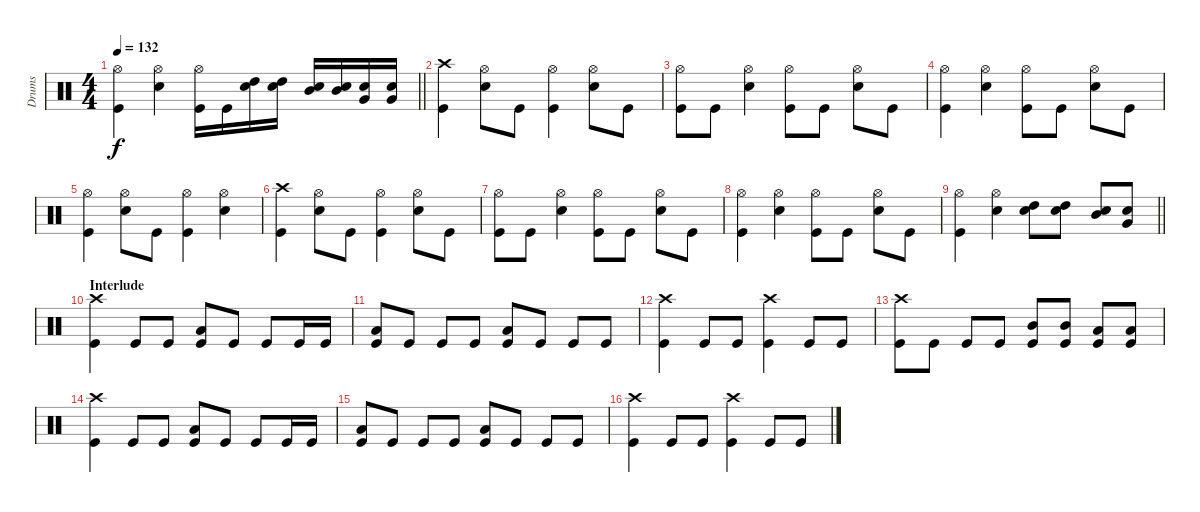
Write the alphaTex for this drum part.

\track ("Drums" "Drums") {instrument percussion}
\staff {score}
\articulation defaults
\ts (4 4)
\tempo 132
\clef neutral
\barLineRight lightlight
\ks c
("Hi-Hat (open)" "Kick (hit)").4{dy f} ("Hi-Hat (open)" "Electric Snare (hit)").4 ("Hi-Hat (open)" "Kick (hit)").16 "Kick (hit)".16 ("High Tom (hit)" "Electric Snare (hit)").16 ("High Tom (hit)" "Electric Snare (hit)").16 ("Mid Tom (hit)" "Electric Snare (hit)").16 ("Mid Tom (hit)" "Electric Snare (hit)").16 ("Very Low Tom (hit)" "Electric Snare (hit)").16 ("Very Low Tom (hit)" "Electric Snare (hit)").16 |
("Crash high (hit)" "Kick (hit)").4 ("Hi-Hat (open)" "Electric Snare (hit)").8 "Kick (hit)".8 ("Hi-Hat (open)" "Kick (hit)").4 ("Hi-Hat (open)" "Electric Snare (hit)").8 "Kick (hit)".8 |
("Hi-Hat (open)" "Kick (hit)").8 "Kick (hit)".8 ("Hi-Hat (open)" "Electric Snare (hit)").4 ("Hi-Hat (open)" "Kick (hit)").8 "Kick (hit)".8 ("Hi-Hat (open)" "Electric Snare (hit)").8 "Kick (hit)".8 |
("Hi-Hat (open)" "Kick (hit)").4 ("Hi-Hat (open)" "Electric Snare (hit)").4 ("Hi-Hat (open)" "Kick (hit)").8 "Kick (hit)".8 ("Hi-Hat (open)" "Electric Snare (hit)").8 "Kick (hit)".8 |
("Hi-Hat (open)" "Kick (hit)").4 ("Hi-Hat (open)" "Electric Snare (hit)").8 "Kick (hit)".8 ("Hi-Hat (open)" "Kick (hit)").4 ("Hi-Hat (open)" "Electric Snare (hit)").4 |
("Crash high (hit)" "Kick (hit)").4 ("Hi-Hat (open)" "Electric Snare (hit)").8 "Kick (hit)".8 ("Hi-Hat (open)" "Kick (hit)").4 ("Hi-Hat (open)" "Electric Snare (hit)").8 "Kick (hit)".8 |
("Hi-Hat (open)" "Kick (hit)").8 "Kick (hit)".8 ("Hi-Hat (open)" "Electric Snare (hit)").4 ("Hi-Hat (open)" "Kick (hit)").8 "Kick (hit)".8 ("Hi-Hat (open)" "Electric Snare (hit)").8 "Kick (hit)".8 |
("Hi-Hat (open)" "Kick (hit)").4 ("Hi-Hat (open)" "Electric Snare (hit)").4 ("Hi-Hat (open)" "Kick (hit)").8 "Kick (hit)".8 ("Hi-Hat (open)" "Electric Snare (hit)").8 "Kick (hit)".8 |
\barLineRight lightlight
("Hi-Hat (open)" "Kick (hit)").4 ("Hi-Hat (open)" "Electric Snare (hit)").4 ("High Tom (hit)" "Electric Snare (hit)").8 ("High Tom (hit)" "Electric Snare (hit)").8 ("Mid Tom (hit)" "Electric Snare (hit)").8 ("Very Low Tom (hit)" "Electric Snare (hit)").8 |
\section ("" "Interlude ")
("Crash high (hit)" "Kick (hit)").4 "Kick (hit)".8 "Kick (hit)".8 ("Low Floor Tom (hit)" "Kick (hit)").8 "Kick (hit)".8 "Kick (hit)".8 "Kick (hit)".16 "Kick (hit)".16 |
("Low Floor Tom (hit)" "Kick (hit)").8 "Kick (hit)".8 "Kick (hit)".8 "Kick (hit)".8 ("Low Floor Tom (hit)" "Kick (hit)").8 "Kick (hit)".8 "Kick (hit)".8 "Kick (hit)".8 |
("Crash high (hit)" "Kick (hit)").4 "Kick (hit)".8 "Kick (hit)".8 ("Crash high (hit)" "Kick (hit)").4 "Kick (hit)".8 "Kick (hit)".8 |
("Crash high (hit)" "Kick (hit)").8 "Kick (hit)".8 "Kick (hit)".8 "Kick (hit)".8 ("Mid Tom (hit)" "Kick (hit)").8 ("Mid Tom (hit)" "Kick (hit)").8 ("Low Tom (hit)" "Kick (hit)").8 ("Low Tom (hit)" "Kick (hit)").8 |
("Crash high (hit)" "Kick (hit)").4 "Kick (hit)".8 "Kick (hit)".8 ("Low Floor Tom (hit)" "Kick (hit)").8 "Kick (hit)".8 "Kick (hit)".8 "Kick (hit)".16 "Kick (hit)".16 |
("Low Floor Tom (hit)" "Kick (hit)").8 "Kick (hit)".8 "Kick (hit)".8 "Kick (hit)".8 ("Low Floor Tom (hit)" "Kick (hit)").8 "Kick (hit)".8 "Kick (hit)".8 "Kick (hit)".8 |
("Crash high (hit)" "Kick (hit)").4 "Kick (hit)".8 "Kick (hit)".8 ("Crash high (hit)" "Kick (hit)").4 "Kick (hit)".8 "Kick (hit)".8
